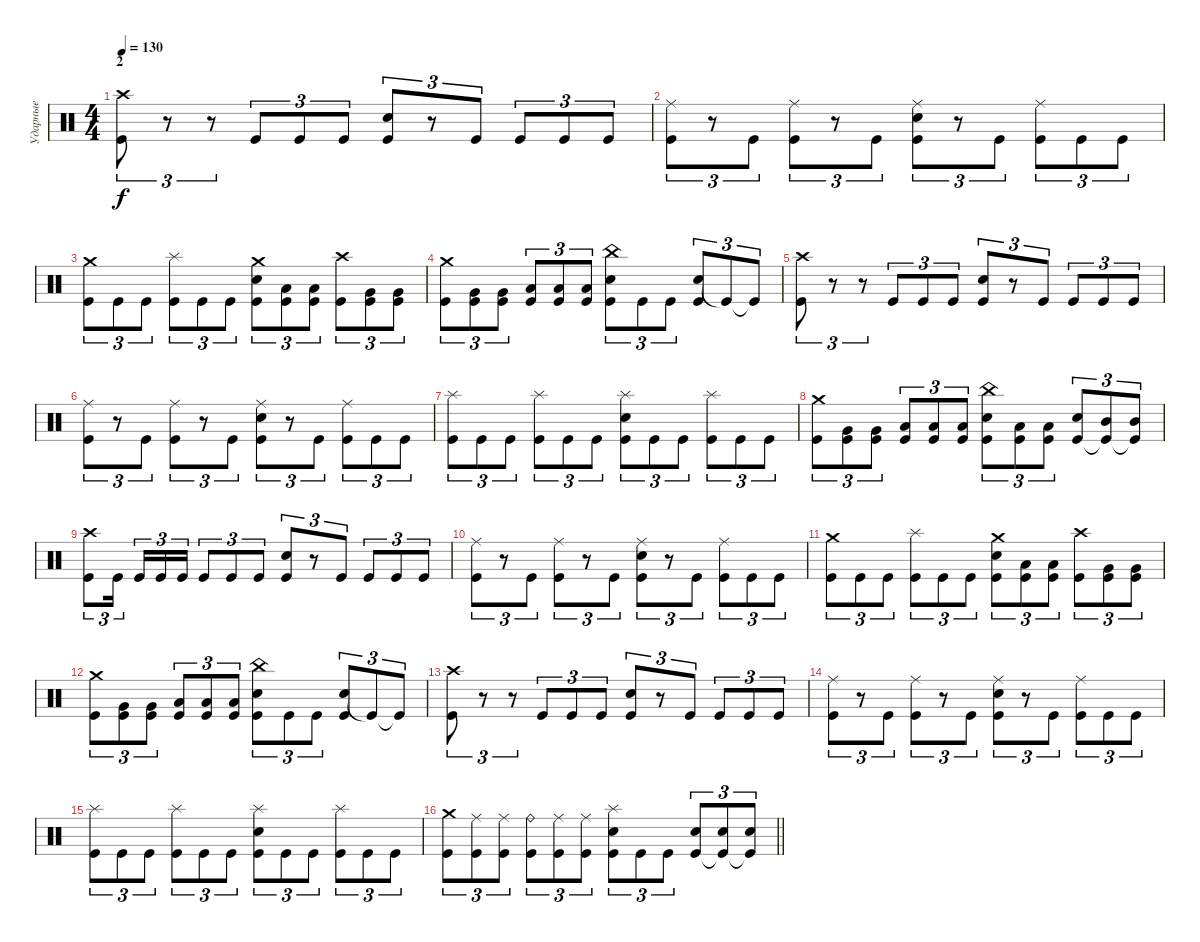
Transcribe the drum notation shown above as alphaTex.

\track ("Ударные" "Ударные") {instrument percussion}
\staff {score}
\articulation defaults
\ts (4 4)
\section ("" "2")
\tempo 130
\clef neutral
\ks c
("Crash high (hit)" "Kick (hit)").8{tu (3 2) dy f} r.8{tu (3 2)} r.8{tu (3 2)} "Kick (hit)".8{tu (3 2)} "Kick (hit)".8{tu (3 2)} "Kick (hit)".8{tu (3 2)} ("Electric Snare (hit)" "Kick (hit)").8{tu (3 2)} r.8{tu (3 2)} "Kick (hit)".8{tu (3 2)} "Kick (hit)".8{tu (3 2)} "Kick (hit)".8{tu (3 2)} "Kick (hit)".8{tu (3 2)} |
("Ride (middle)" "Kick (hit)").8{tu (3 2)} r.8{tu (3 2)} "Kick (hit)".8{tu (3 2)} ("Ride (middle)" "Kick (hit)").8{tu (3 2)} r.8{tu (3 2)} "Kick (hit)".8{tu (3 2)} ("Ride (middle)" "Electric Snare (hit)" "Kick (hit)").8{tu (3 2)} r.8{tu (3 2)} "Kick (hit)".8{tu (3 2)} ("Ride (middle)" "Kick (hit)").8{tu (3 2)} "Kick (hit)".8{tu (3 2)} "Kick (hit)".8{tu (3 2)} |
("Crash medium (hit)" "Kick (hit)").8{tu (3 2)} "Kick (hit)".8{tu (3 2)} "Kick (hit)".8{tu (3 2)} ("Splash (hit)" "Kick (hit)").8{tu (3 2)} "Kick (hit)".8{tu (3 2)} "Kick (hit)".8{tu (3 2)} ("Crash medium (hit)" "Electric Snare (hit)" "Kick (hit)").8{tu (3 2)} ("Low Tom (hit)" "Kick (hit)").8{tu (3 2)} ("Low Tom (hit)" "Kick (hit)").8{tu (3 2)} ("Crash high (hit)" "Kick (hit)").8{tu (3 2)} ("Very Low Tom (hit)" "Kick (hit)").8{tu (3 2)} ("Very Low Tom (hit)" "Kick (hit)").8{tu (3 2)} |
("Crash medium (hit)" "Kick (hit)").8{tu (3 2)} ("Very Low Tom (hit)" "Kick (hit)").8{tu (3 2)} ("Very Low Tom (hit)" "Kick (hit)").8{tu (3 2)} ("Low Floor Tom (hit)" "Kick (hit)").8{tu (3 2)} ("Low Floor Tom (hit)" "Kick (hit)").8{tu (3 2)} ("Low Floor Tom (hit)" "Kick (hit)").8{tu (3 2)} ("China (hit)" "Electric Snare (hit)" "Kick (hit)").8{tu (3 2)} "Kick (hit)".8{tu (3 2)} "Kick (hit)".8{tu (3 2)} ("Electric Snare (hit)" "Kick (hit)").8{tu (3 2)} "Kick (hit)"{t}.8{tu (3 2)} "Kick (hit)"{t}.8{tu (3 2)} |
("Crash high (hit)" "Kick (hit)").8{tu (3 2)} r.8{tu (3 2)} r.8{tu (3 2)} "Kick (hit)".8{tu (3 2)} "Kick (hit)".8{tu (3 2)} "Kick (hit)".8{tu (3 2)} ("Electric Snare (hit)" "Kick (hit)").8{tu (3 2)} r.8{tu (3 2)} "Kick (hit)".8{tu (3 2)} "Kick (hit)".8{tu (3 2)} "Kick (hit)".8{tu (3 2)} "Kick (hit)".8{tu (3 2)} |
("Ride (middle)" "Kick (hit)").8{tu (3 2)} r.8{tu (3 2)} "Kick (hit)".8{tu (3 2)} ("Ride (middle)" "Kick (hit)").8{tu (3 2)} r.8{tu (3 2)} "Kick (hit)".8{tu (3 2)} ("Ride (middle)" "Electric Snare (hit)" "Kick (hit)").8{tu (3 2)} r.8{tu (3 2)} "Kick (hit)".8{tu (3 2)} ("Ride (middle)" "Kick (hit)").8{tu (3 2)} "Kick (hit)".8{tu (3 2)} "Kick (hit)".8{tu (3 2)} |
("Splash (hit)" "Kick (hit)").8{tu (3 2)} "Kick (hit)".8{tu (3 2)} "Kick (hit)".8{tu (3 2)} ("Splash (hit)" "Kick (hit)").8{tu (3 2)} "Kick (hit)".8{tu (3 2)} "Kick (hit)".8{tu (3 2)} ("Splash (hit)" "Electric Snare (hit)" "Kick (hit)").8{tu (3 2)} "Kick (hit)".8{tu (3 2)} "Kick (hit)".8{tu (3 2)} ("Splash (hit)" "Kick (hit)").8{tu (3 2)} "Kick (hit)".8{tu (3 2)} "Kick (hit)".8{tu (3 2)} |
("Crash medium (hit)" "Kick (hit)").8{tu (3 2)} ("Very Low Tom (hit)" "Kick (hit)").8{tu (3 2)} ("Very Low Tom (hit)" "Kick (hit)").8{tu (3 2)} ("Low Floor Tom (hit)" "Kick (hit)").8{tu (3 2)} ("Low Floor Tom (hit)" "Kick (hit)").8{tu (3 2)} ("Low Floor Tom (hit)" "Kick (hit)").8{tu (3 2)} ("China (hit)" "Electric Snare (hit)" "Kick (hit)").8{tu (3 2)} ("Low Tom (hit)" "Kick (hit)").8{tu (3 2)} ("Low Tom (hit)" "Kick (hit)").8{tu (3 2)} ("Electric Snare (hit)" "Kick (hit)").8{tu (3 2)} ("Mid Tom (hit)" "Kick (hit)"{t}).8{tu (3 2)} ("Mid Tom (hit)" "Kick (hit)"{t}).8{tu (3 2)} |
("Crash high (hit)" "Kick (hit)").8{tu (3 2)} "Kick (hit)".16{tu (3 2) beam splitsecondary} "Kick (hit)".16{tu (3 2)} "Kick (hit)".16{tu (3 2)} "Kick (hit)".16{tu (3 2)} "Kick (hit)".8{tu (3 2)} "Kick (hit)".8{tu (3 2)} "Kick (hit)".8{tu (3 2)} ("Electric Snare (hit)" "Kick (hit)").8{tu (3 2)} r.8{tu (3 2)} "Kick (hit)".8{tu (3 2)} "Kick (hit)".8{tu (3 2)} "Kick (hit)".8{tu (3 2)} "Kick (hit)".8{tu (3 2)} |
("Ride (middle)" "Kick (hit)").8{tu (3 2)} r.8{tu (3 2)} "Kick (hit)".8{tu (3 2)} ("Ride (middle)" "Kick (hit)").8{tu (3 2)} r.8{tu (3 2)} "Kick (hit)".8{tu (3 2)} ("Ride (middle)" "Electric Snare (hit)" "Kick (hit)").8{tu (3 2)} r.8{tu (3 2)} "Kick (hit)".8{tu (3 2)} ("Ride (middle)" "Kick (hit)").8{tu (3 2)} "Kick (hit)".8{tu (3 2)} "Kick (hit)".8{tu (3 2)} |
("Crash medium (hit)" "Kick (hit)").8{tu (3 2)} "Kick (hit)".8{tu (3 2)} "Kick (hit)".8{tu (3 2)} ("Splash (hit)" "Kick (hit)").8{tu (3 2)} "Kick (hit)".8{tu (3 2)} "Kick (hit)".8{tu (3 2)} ("Crash medium (hit)" "Electric Snare (hit)" "Kick (hit)").8{tu (3 2)} ("Low Tom (hit)" "Kick (hit)").8{tu (3 2)} ("Low Tom (hit)" "Kick (hit)").8{tu (3 2)} ("Crash high (hit)" "Kick (hit)").8{tu (3 2)} ("Very Low Tom (hit)" "Kick (hit)").8{tu (3 2)} ("Very Low Tom (hit)" "Kick (hit)").8{tu (3 2)} |
("Crash medium (hit)" "Kick (hit)").8{tu (3 2)} ("Very Low Tom (hit)" "Kick (hit)").8{tu (3 2)} ("Very Low Tom (hit)" "Kick (hit)").8{tu (3 2)} ("Low Floor Tom (hit)" "Kick (hit)").8{tu (3 2)} ("Low Floor Tom (hit)" "Kick (hit)").8{tu (3 2)} ("Low Floor Tom (hit)" "Kick (hit)").8{tu (3 2)} ("China (hit)" "Electric Snare (hit)" "Kick (hit)").8{tu (3 2)} "Kick (hit)".8{tu (3 2)} "Kick (hit)".8{tu (3 2)} ("Electric Snare (hit)" "Kick (hit)").8{tu (3 2)} "Kick (hit)"{t}.8{tu (3 2)} "Kick (hit)"{t}.8{tu (3 2)} |
("Crash high (hit)" "Kick (hit)").8{tu (3 2)} r.8{tu (3 2)} r.8{tu (3 2)} "Kick (hit)".8{tu (3 2)} "Kick (hit)".8{tu (3 2)} "Kick (hit)".8{tu (3 2)} ("Electric Snare (hit)" "Kick (hit)").8{tu (3 2)} r.8{tu (3 2)} "Kick (hit)".8{tu (3 2)} "Kick (hit)".8{tu (3 2)} "Kick (hit)".8{tu (3 2)} "Kick (hit)".8{tu (3 2)} |
("Ride (middle)" "Kick (hit)").8{tu (3 2)} r.8{tu (3 2)} "Kick (hit)".8{tu (3 2)} ("Ride (middle)" "Kick (hit)").8{tu (3 2)} r.8{tu (3 2)} "Kick (hit)".8{tu (3 2)} ("Ride (middle)" "Electric Snare (hit)" "Kick (hit)").8{tu (3 2)} r.8{tu (3 2)} "Kick (hit)".8{tu (3 2)} ("Ride (middle)" "Kick (hit)").8{tu (3 2)} "Kick (hit)".8{tu (3 2)} "Kick (hit)".8{tu (3 2)} |
("Splash (hit)" "Kick (hit)").8{tu (3 2)} "Kick (hit)".8{tu (3 2)} "Kick (hit)".8{tu (3 2)} ("Splash (hit)" "Kick (hit)").8{tu (3 2)} "Kick (hit)".8{tu (3 2)} "Kick (hit)".8{tu (3 2)} ("Splash (hit)" "Electric Snare (hit)" "Kick (hit)").8{tu (3 2)} "Kick (hit)".8{tu (3 2)} "Kick (hit)".8{tu (3 2)} ("Splash (hit)" "Kick (hit)").8{tu (3 2)} "Kick (hit)".8{tu (3 2)} "Kick (hit)".8{tu (3 2)} |
\barLineRight lightlight
("Crash medium (hit)" "Kick (hit)").8{tu (3 2)} ("Ride (middle)" "Kick (hit)").8{tu (3 2)} ("Ride (middle)" "Kick (hit)").8{tu (3 2)} ("Ride (bell)" "Kick (hit)").8{tu (3 2)} ("Ride (middle)" "Kick (hit)").8{tu (3 2)} ("Ride (middle)" "Kick (hit)").8{tu (3 2)} ("Splash (hit)" "Electric Snare (hit)" "Kick (hit)").8{tu (3 2)} "Kick (hit)".8{tu (3 2)} "Kick (hit)".8{tu (3 2)} ("Electric Snare (hit)" "Kick (hit)").8{tu (3 2)} ("Electric Snare (hit)" "Kick (hit)"{t}).8{tu (3 2)} ("Electric Snare (hit)" "Kick (hit)"{t}).8{tu (3 2)}
